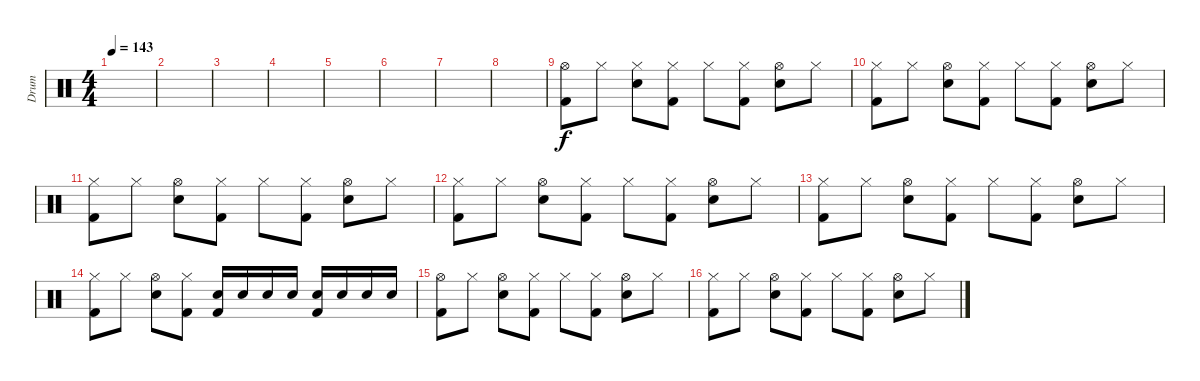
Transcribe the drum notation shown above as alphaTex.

\track ("Drum" "Drum") {instrument percussion}
\staff {score}
\articulation defaults
\ts (4 4)
\tempo 143
\clef neutral
\ks c
|
|
|
|
|
|
|
|
("Hi-Hat (open)" "Kick (hit) 2").8 "Hi-Hat (closed)".8 ("Hi-Hat (closed)" "Electric Snare (hit)").8 ("Hi-Hat (closed)" "Kick (hit) 2").8 "Hi-Hat (closed)".8 ("Hi-Hat (closed)" "Kick (hit) 2").8 ("Hi-Hat (open)" "Electric Snare (hit)").8 "Hi-Hat (closed)".8 |
("Hi-Hat (closed)" "Kick (hit) 2").8 "Hi-Hat (closed)".8 ("Hi-Hat (open)" "Electric Snare (hit)").8 ("Hi-Hat (closed)" "Kick (hit) 2").8 "Hi-Hat (closed)".8 ("Hi-Hat (closed)" "Kick (hit) 2").8 ("Hi-Hat (open)" "Electric Snare (hit)").8 "Hi-Hat (closed)".8 |
("Hi-Hat (closed)" "Kick (hit) 2").8 "Hi-Hat (closed)".8 ("Hi-Hat (open)" "Electric Snare (hit)").8 ("Hi-Hat (closed)" "Kick (hit) 2").8 "Hi-Hat (closed)".8 ("Hi-Hat (closed)" "Kick (hit) 2").8 ("Hi-Hat (open)" "Electric Snare (hit)").8 "Hi-Hat (closed)".8 |
("Hi-Hat (closed)" "Kick (hit) 2").8 "Hi-Hat (closed)".8 ("Hi-Hat (open)" "Electric Snare (hit)").8 ("Hi-Hat (closed)" "Kick (hit) 2").8 "Hi-Hat (closed)".8 ("Hi-Hat (closed)" "Kick (hit) 2").8 ("Hi-Hat (open)" "Electric Snare (hit)").8 "Hi-Hat (closed)".8 |
("Hi-Hat (closed)" "Kick (hit) 2").8 "Hi-Hat (closed)".8 ("Hi-Hat (open)" "Electric Snare (hit)").8 ("Hi-Hat (closed)" "Kick (hit) 2").8 "Hi-Hat (closed)".8 ("Hi-Hat (closed)" "Kick (hit) 2").8 ("Hi-Hat (open)" "Electric Snare (hit)").8 "Hi-Hat (closed)".8 |
("Hi-Hat (closed)" "Kick (hit) 2").8 "Hi-Hat (closed)".8 ("Hi-Hat (open)" "Electric Snare (hit)").8 ("Hi-Hat (closed)" "Kick (hit) 2").8 ("Electric Snare (hit)" "Kick (hit) 2").16 "Electric Snare (hit)".16 "Electric Snare (hit)".16 "Electric Snare (hit)".16 ("Electric Snare (hit)" "Kick (hit) 2").16 "Electric Snare (hit)".16 "Electric Snare (hit)".16 "Electric Snare (hit)".16 |
("Hi-Hat (open)" "Kick (hit) 2").8 "Hi-Hat (closed)".8 ("Hi-Hat (open)" "Electric Snare (hit)").8 ("Hi-Hat (closed)" "Kick (hit) 2").8 "Hi-Hat (closed)".8 ("Hi-Hat (closed)" "Kick (hit) 2").8 ("Hi-Hat (open)" "Electric Snare (hit)").8 "Hi-Hat (closed)".8 |
("Hi-Hat (closed)" "Kick (hit) 2").8 "Hi-Hat (closed)".8 ("Hi-Hat (open)" "Electric Snare (hit)").8 ("Hi-Hat (closed)" "Kick (hit) 2").8 "Hi-Hat (closed)".8 ("Hi-Hat (closed)" "Kick (hit) 2").8 ("Hi-Hat (open)" "Electric Snare (hit)").8 "Hi-Hat (closed)".8
